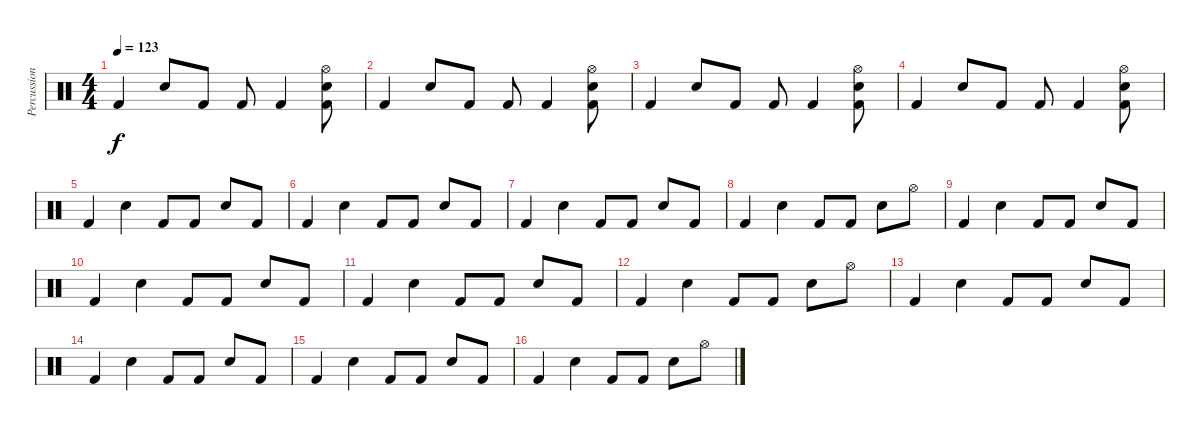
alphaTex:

\track ("Percussions" "Percussion") {instrument percussion}
\staff {score}
\articulation defaults
\ts (4 4)
\tempo 123
\clef neutral
\ks c "Kick (hit) 2".4{dy f} "Snare (hit) 2".8 "Kick (hit) 2".8 "Kick (hit) 2".8 "Kick (hit) 2".4
("Hi-Hat (open)" "Snare (hit) 2" "Kick (hit) 2").8 |
"Kick (hit) 2".4 "Snare (hit) 2".8 "Kick (hit) 2".8 "Kick (hit) 2".8 "Kick (hit) 2".4 ("Hi-Hat (open)" "Snare (hit) 2" "Kick (hit) 2").8 |
"Kick (hit) 2".4 "Snare (hit) 2".8 "Kick (hit) 2".8 "Kick (hit) 2".8 "Kick (hit) 2".4 ("Hi-Hat (open)" "Snare (hit) 2" "Kick (hit) 2").8 |
"Kick (hit) 2".4 "Snare (hit) 2".8 "Kick (hit) 2".8 "Kick (hit) 2".8 "Kick (hit) 2".4 ("Hi-Hat (open)" "Snare (hit) 2" "Kick (hit) 2").8 |
"Kick (hit) 2".4 "Snare (hit) 2".4 "Kick (hit) 2".8 "Kick (hit) 2".8 "Snare (hit) 2".8 "Kick (hit) 2".8 |
"Kick (hit) 2".4 "Snare (hit) 2".4 "Kick (hit) 2".8 "Kick (hit) 2".8 "Snare (hit) 2".8 "Kick (hit) 2".8 |
"Kick (hit) 2".4 "Snare (hit) 2".4 "Kick (hit) 2".8 "Kick (hit) 2".8 "Snare (hit) 2".8 "Kick (hit) 2".8 |
"Kick (hit) 2".4 "Snare (hit) 2".4 "Kick (hit) 2".8 "Kick (hit) 2".8 "Snare (hit) 2".8 "Hi-Hat (open)".8 |
"Kick (hit) 2".4 "Snare (hit) 2".4 "Kick (hit) 2".8 "Kick (hit) 2".8 "Snare (hit) 2".8 "Kick (hit) 2".8 |
"Kick (hit) 2".4 "Snare (hit) 2".4 "Kick (hit) 2".8 "Kick (hit) 2".8 "Snare (hit) 2".8 "Kick (hit) 2".8 |
"Kick (hit) 2".4 "Snare (hit) 2".4 "Kick (hit) 2".8 "Kick (hit) 2".8 "Snare (hit) 2".8 "Kick (hit) 2".8 |
"Kick (hit) 2".4 "Snare (hit) 2".4 "Kick (hit) 2".8 "Kick (hit) 2".8 "Snare (hit) 2".8 "Hi-Hat (open)".8 |
"Kick (hit) 2".4 "Snare (hit) 2".4 "Kick (hit) 2".8 "Kick (hit) 2".8 "Snare (hit) 2".8 "Kick (hit) 2".8 |
"Kick (hit) 2".4 "Snare (hit) 2".4 "Kick (hit) 2".8 "Kick (hit) 2".8 "Snare (hit) 2".8 "Kick (hit) 2".8 |
"Kick (hit) 2".4 "Snare (hit) 2".4 "Kick (hit) 2".8 "Kick (hit) 2".8 "Snare (hit) 2".8 "Kick (hit) 2".8 |
"Kick (hit) 2".4 "Snare (hit) 2".4 "Kick (hit) 2".8 "Kick (hit) 2".8 "Snare (hit) 2".8 "Hi-Hat (open)".8
